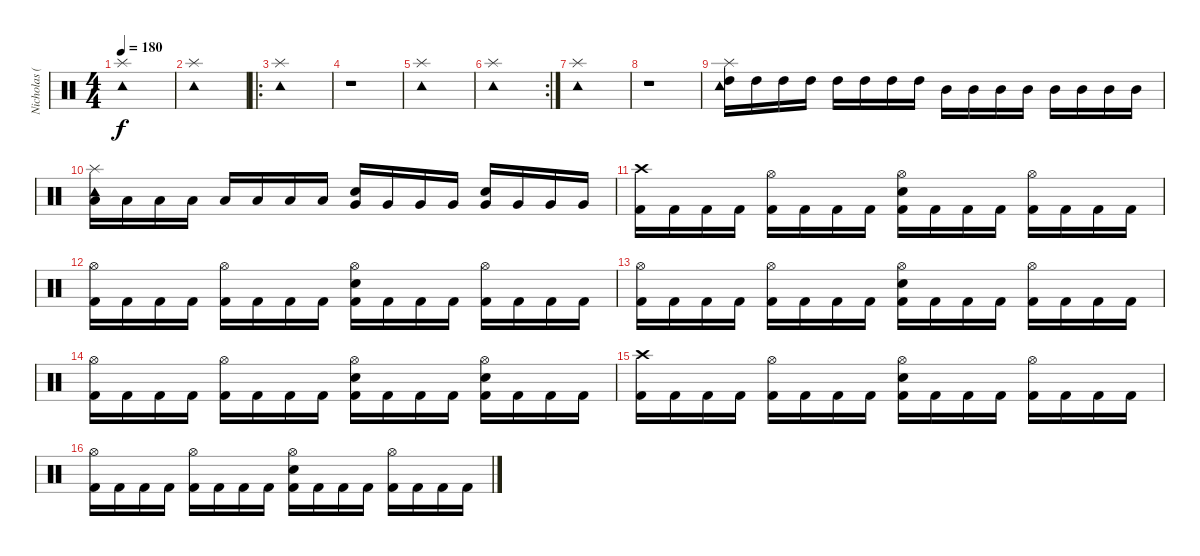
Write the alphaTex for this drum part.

\track ("Nicholas (Drums)" "Nicholas (") {instrument percussion}
\staff {score}
\articulation defaults
\ts (4 4)
\tempo 180
\clef neutral
\ks c
("Splash (hit)" "Tambourine (hit)").1{dy f} |
("Splash (hit)" "Tambourine (hit)").1 |
\ro
("Splash (hit)" "Tambourine (hit)").1 |
r.1 |
("Splash (hit)" "Tambourine (hit)").1 |
\rc 2
("Splash (hit)" "Tambourine (hit)").1 |
("Splash (hit)" "Tambourine (hit)").1 |
r.1 |
("Splash (hit)" "Tambourine (hit)" "High Tom (hit)").16 "High Tom (hit)".16 "High Tom (hit)".16 "High Tom (hit)".16 "High Tom (hit)".16 "High Tom (hit)".16 "High Tom (hit)".16 "High Tom (hit)".16 "Mid Tom (hit)".16 "Mid Tom (hit)".16 "Mid Tom (hit)".16 "Mid Tom (hit)".16 "Mid Tom (hit)".16 "Mid Tom (hit)".16 "Mid Tom (hit)".16 "Mid Tom (hit)".16 |
("Splash (hit)" "Tambourine (hit)" "Low Tom (hit)").16 "Low Tom (hit)".16 "Low Tom (hit)".16 "Low Tom (hit)".16 "Low Tom (hit)".16 "Low Tom (hit)".16 "Low Tom (hit)".16 "Low Tom (hit)".16 ("Electric Snare (hit)" "Very Low Tom (hit)").16 "Very Low Tom (hit)".16 "Very Low Tom (hit)".16 "Very Low Tom (hit)".16 ("Electric Snare (hit)" "Very Low Tom (hit)").16 "Very Low Tom (hit)".16 "Very Low Tom (hit)".16 "Very Low Tom (hit)".16 |
("Crash high (hit)" "Kick (hit) 2").16 "Kick (hit) 2".16 "Kick (hit) 2".16 "Kick (hit) 2".16 ("Hi-Hat (open)" "Kick (hit) 2").16 "Kick (hit) 2".16 "Kick (hit) 2".16 "Kick (hit) 2".16 ("Hi-Hat (open)" "Electric Snare (hit)" "Kick (hit) 2").16 "Kick (hit) 2".16 "Kick (hit) 2".16 "Kick (hit) 2".16 ("Hi-Hat (open)" "Kick (hit) 2").16 "Kick (hit) 2".16 "Kick (hit) 2".16 "Kick (hit) 2".16 |
("Hi-Hat (open)" "Kick (hit) 2").16 "Kick (hit) 2".16 "Kick (hit) 2".16 "Kick (hit) 2".16 ("Hi-Hat (open)" "Kick (hit) 2").16 "Kick (hit) 2".16 "Kick (hit) 2".16 "Kick (hit) 2".16 ("Hi-Hat (open)" "Electric Snare (hit)" "Kick (hit) 2").16 "Kick (hit) 2".16 "Kick (hit) 2".16 "Kick (hit) 2".16 ("Hi-Hat (open)" "Kick (hit) 2").16 "Kick (hit) 2".16 "Kick (hit) 2".16 "Kick (hit) 2".16 |
("Hi-Hat (open)" "Kick (hit) 2").16 "Kick (hit) 2".16 "Kick (hit) 2".16 "Kick (hit) 2".16 ("Hi-Hat (open)" "Kick (hit) 2").16 "Kick (hit) 2".16 "Kick (hit) 2".16 "Kick (hit) 2".16 ("Hi-Hat (open)" "Electric Snare (hit)" "Kick (hit) 2").16 "Kick (hit) 2".16 "Kick (hit) 2".16 "Kick (hit) 2".16 ("Hi-Hat (open)" "Kick (hit) 2").16 "Kick (hit) 2".16 "Kick (hit) 2".16 "Kick (hit) 2".16 |
("Hi-Hat (open)" "Kick (hit) 2").16 "Kick (hit) 2".16 "Kick (hit) 2".16 "Kick (hit) 2".16 ("Hi-Hat (open)" "Kick (hit) 2").16 "Kick (hit) 2".16 "Kick (hit) 2".16 "Kick (hit) 2".16 ("Hi-Hat (open)" "Electric Snare (hit)" "Kick (hit) 2").16 "Kick (hit) 2".16 "Kick (hit) 2".16 "Kick (hit) 2".16 ("Hi-Hat (open)" "Electric Snare (hit)" "Kick (hit) 2").16 "Kick (hit) 2".16 "Kick (hit) 2".16 "Kick (hit) 2".16 |
("Crash high (hit)" "Kick (hit) 2").16 "Kick (hit) 2".16 "Kick (hit) 2".16 "Kick (hit) 2".16 ("Hi-Hat (open)" "Kick (hit) 2").16 "Kick (hit) 2".16 "Kick (hit) 2".16 "Kick (hit) 2".16 ("Hi-Hat (open)" "Electric Snare (hit)" "Kick (hit) 2").16 "Kick (hit) 2".16 "Kick (hit) 2".16 "Kick (hit) 2".16 ("Hi-Hat (open)" "Kick (hit) 2").16 "Kick (hit) 2".16 "Kick (hit) 2".16 "Kick (hit) 2".16 |
("Hi-Hat (open)" "Kick (hit) 2").16 "Kick (hit) 2".16 "Kick (hit) 2".16 "Kick (hit) 2".16 ("Hi-Hat (open)" "Kick (hit) 2").16 "Kick (hit) 2".16 "Kick (hit) 2".16 "Kick (hit) 2".16 ("Hi-Hat (open)" "Electric Snare (hit)" "Kick (hit) 2").16 "Kick (hit) 2".16 "Kick (hit) 2".16 "Kick (hit) 2".16 ("Hi-Hat (open)" "Kick (hit) 2").16 "Kick (hit) 2".16 "Kick (hit) 2".16 "Kick (hit) 2".16
